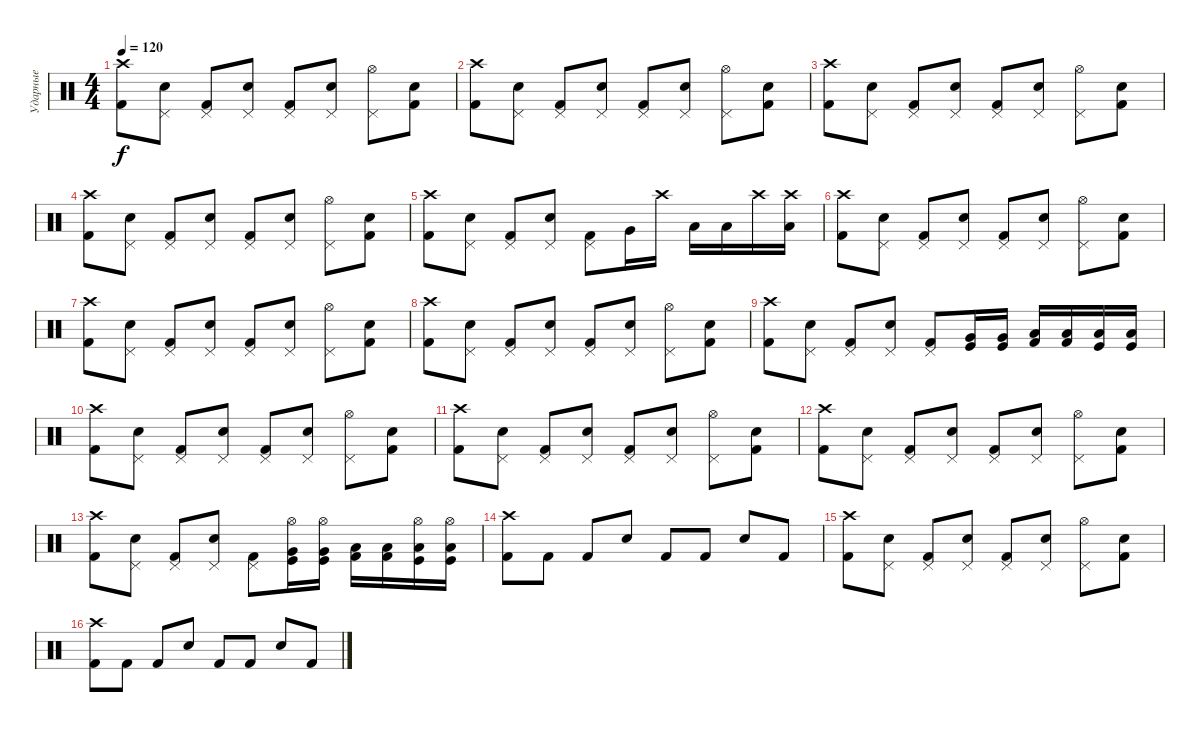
\track ("Ударные" "Ударные") {instrument percussion}
\staff {score}
\articulation defaults
\ts (4 4)
\tempo 120
\clef neutral
\ks c
("Crash high (hit)" "Kick (hit) 2").8{dy f} ("Electric Snare (hit)" "Pedal Hi-Hat (hit)").8 ("Pedal Hi-Hat (hit)" "Kick (hit) 2").8 ("Electric Snare (hit)" "Pedal Hi-Hat (hit)").8 ("Pedal Hi-Hat (hit)" "Kick (hit) 2").8 ("Electric Snare (hit)" "Pedal Hi-Hat (hit)").8 ("Hi-Hat (open)" "Pedal Hi-Hat (hit)").8 ("Electric Snare (hit)" "Kick (hit) 2").8 |
("Crash high (hit)" "Kick (hit) 2").8 ("Electric Snare (hit)" "Pedal Hi-Hat (hit)").8 ("Pedal Hi-Hat (hit)" "Kick (hit) 2").8 ("Electric Snare (hit)" "Pedal Hi-Hat (hit)").8 ("Pedal Hi-Hat (hit)" "Kick (hit) 2").8 ("Electric Snare (hit)" "Pedal Hi-Hat (hit)").8 ("Hi-Hat (open)" "Pedal Hi-Hat (hit)").8 ("Electric Snare (hit)" "Kick (hit) 2").8 |
("Crash high (hit)" "Kick (hit) 2").8 ("Electric Snare (hit)" "Pedal Hi-Hat (hit)").8 ("Pedal Hi-Hat (hit)" "Kick (hit) 2").8 ("Electric Snare (hit)" "Pedal Hi-Hat (hit)").8 ("Pedal Hi-Hat (hit)" "Kick (hit) 2").8 ("Electric Snare (hit)" "Pedal Hi-Hat (hit)").8 ("Hi-Hat (open)" "Pedal Hi-Hat (hit)").8 ("Electric Snare (hit)" "Kick (hit) 2").8 |
("Crash high (hit)" "Kick (hit) 2").8 ("Electric Snare (hit)" "Pedal Hi-Hat (hit)").8 ("Pedal Hi-Hat (hit)" "Kick (hit) 2").8 ("Electric Snare (hit)" "Pedal Hi-Hat (hit)").8 ("Pedal Hi-Hat (hit)" "Kick (hit) 2").8 ("Electric Snare (hit)" "Pedal Hi-Hat (hit)").8 ("Hi-Hat (open)" "Pedal Hi-Hat (hit)").8 ("Electric Snare (hit)" "Kick (hit) 2").8 |
("Crash high (hit)" "Kick (hit) 2").8 ("Electric Snare (hit)" "Pedal Hi-Hat (hit)").8 ("Pedal Hi-Hat (hit)" "Kick (hit) 2").8 ("Electric Snare (hit)" "Pedal Hi-Hat (hit)").8 ("Pedal Hi-Hat (hit)" "Kick (hit) 2").8 "Very Low Tom (hit)".16 "Crash high (hit)".16 "Low Floor Tom (hit)".16 "Low Floor Tom (hit)".16 "Crash high (hit)".16 ("Crash high (hit)" "Low Tom (hit)").16 |
("Crash high (hit)" "Kick (hit) 2").8 ("Electric Snare (hit)" "Pedal Hi-Hat (hit)").8 ("Pedal Hi-Hat (hit)" "Kick (hit) 2").8 ("Electric Snare (hit)" "Pedal Hi-Hat (hit)").8 ("Pedal Hi-Hat (hit)" "Kick (hit) 2").8 ("Electric Snare (hit)" "Pedal Hi-Hat (hit)").8 ("Hi-Hat (open)" "Pedal Hi-Hat (hit)").8 ("Electric Snare (hit)" "Kick (hit) 2").8 |
("Crash high (hit)" "Kick (hit) 2").8 ("Electric Snare (hit)" "Pedal Hi-Hat (hit)").8 ("Pedal Hi-Hat (hit)" "Kick (hit) 2").8 ("Electric Snare (hit)" "Pedal Hi-Hat (hit)").8 ("Pedal Hi-Hat (hit)" "Kick (hit) 2").8 ("Electric Snare (hit)" "Pedal Hi-Hat (hit)").8 ("Hi-Hat (open)" "Pedal Hi-Hat (hit)").8 ("Electric Snare (hit)" "Kick (hit) 2").8 |
("Crash high (hit)" "Kick (hit) 2").8 ("Electric Snare (hit)" "Pedal Hi-Hat (hit)").8 ("Pedal Hi-Hat (hit)" "Kick (hit) 2").8 ("Electric Snare (hit)" "Pedal Hi-Hat (hit)").8 ("Pedal Hi-Hat (hit)" "Kick (hit) 2").8 ("Electric Snare (hit)" "Pedal Hi-Hat (hit)").8 ("Hi-Hat (open)" "Pedal Hi-Hat (hit)").8 ("Electric Snare (hit)" "Kick (hit) 2").8 |
("Crash high (hit)" "Kick (hit) 2").8 ("Electric Snare (hit)" "Pedal Hi-Hat (hit)").8 ("Pedal Hi-Hat (hit)" "Kick (hit) 2").8 ("Electric Snare (hit)" "Pedal Hi-Hat (hit)").8 ("Pedal Hi-Hat (hit)" "Kick (hit) 2").8 ("Kick (hit)" "Very Low Tom (hit)").16 ("Kick (hit)" "Very Low Tom (hit)").16 ("Kick (hit) 2" "Low Floor Tom (hit)").16 ("Kick (hit) 2" "Low Floor Tom (hit)").16 ("Kick (hit)" "Low Floor Tom (hit)").16 ("Kick (hit)" "Low Tom (hit)").16 |
("Crash high (hit)" "Kick (hit) 2").8 ("Electric Snare (hit)" "Pedal Hi-Hat (hit)").8 ("Pedal Hi-Hat (hit)" "Kick (hit) 2").8 ("Electric Snare (hit)" "Pedal Hi-Hat (hit)").8 ("Pedal Hi-Hat (hit)" "Kick (hit) 2").8 ("Electric Snare (hit)" "Pedal Hi-Hat (hit)").8 ("Hi-Hat (open)" "Pedal Hi-Hat (hit)").8 ("Electric Snare (hit)" "Kick (hit) 2").8 |
("Crash high (hit)" "Kick (hit) 2").8 ("Electric Snare (hit)" "Pedal Hi-Hat (hit)").8 ("Pedal Hi-Hat (hit)" "Kick (hit) 2").8 ("Electric Snare (hit)" "Pedal Hi-Hat (hit)").8 ("Pedal Hi-Hat (hit)" "Kick (hit) 2").8 ("Electric Snare (hit)" "Pedal Hi-Hat (hit)").8 ("Hi-Hat (open)" "Pedal Hi-Hat (hit)").8 ("Electric Snare (hit)" "Kick (hit) 2").8 |
("Crash high (hit)" "Kick (hit) 2").8 ("Electric Snare (hit)" "Pedal Hi-Hat (hit)").8 ("Pedal Hi-Hat (hit)" "Kick (hit) 2").8 ("Electric Snare (hit)" "Pedal Hi-Hat (hit)").8 ("Pedal Hi-Hat (hit)" "Kick (hit) 2").8 ("Electric Snare (hit)" "Pedal Hi-Hat (hit)").8 ("Hi-Hat (open)" "Pedal Hi-Hat (hit)").8 ("Electric Snare (hit)" "Kick (hit) 2").8 |
("Crash high (hit)" "Kick (hit) 2").8 ("Electric Snare (hit)" "Pedal Hi-Hat (hit)").8 ("Pedal Hi-Hat (hit)" "Kick (hit) 2").8 ("Electric Snare (hit)" "Pedal Hi-Hat (hit)").8 ("Pedal Hi-Hat (hit)" "Kick (hit) 2").8 ("Kick (hit)" "Very Low Tom (hit)" "Hi-Hat (open)").16 ("Kick (hit)" "Very Low Tom (hit)" "Hi-Hat (open)").16 ("Kick (hit) 2" "Low Floor Tom (hit)").16 ("Kick (hit) 2" "Low Floor Tom (hit)").16 ("Kick (hit)" "Low Floor Tom (hit)" "Hi-Hat (open)").16 ("Kick (hit)" "Low Tom (hit)" "Hi-Hat (open)").16 |
("Crash high (hit)" "Kick (hit) 2").8 "Kick (hit) 2".8 "Kick (hit) 2".8 "Electric Snare (hit)".8 "Kick (hit) 2".8 "Kick (hit) 2".8 "Electric Snare (hit)".8 "Kick (hit) 2".8 |
("Crash high (hit)" "Kick (hit) 2").8 ("Electric Snare (hit)" "Pedal Hi-Hat (hit)").8 ("Pedal Hi-Hat (hit)" "Kick (hit) 2").8 ("Electric Snare (hit)" "Pedal Hi-Hat (hit)").8 ("Pedal Hi-Hat (hit)" "Kick (hit) 2").8 ("Electric Snare (hit)" "Pedal Hi-Hat (hit)").8 ("Hi-Hat (open)" "Pedal Hi-Hat (hit)").8 ("Electric Snare (hit)" "Kick (hit) 2").8 |
("Crash high (hit)" "Kick (hit) 2").8 "Kick (hit) 2".8 "Kick (hit) 2".8 "Electric Snare (hit)".8 "Kick (hit) 2".8 "Kick (hit) 2".8 "Electric Snare (hit)".8 "Kick (hit) 2".8
